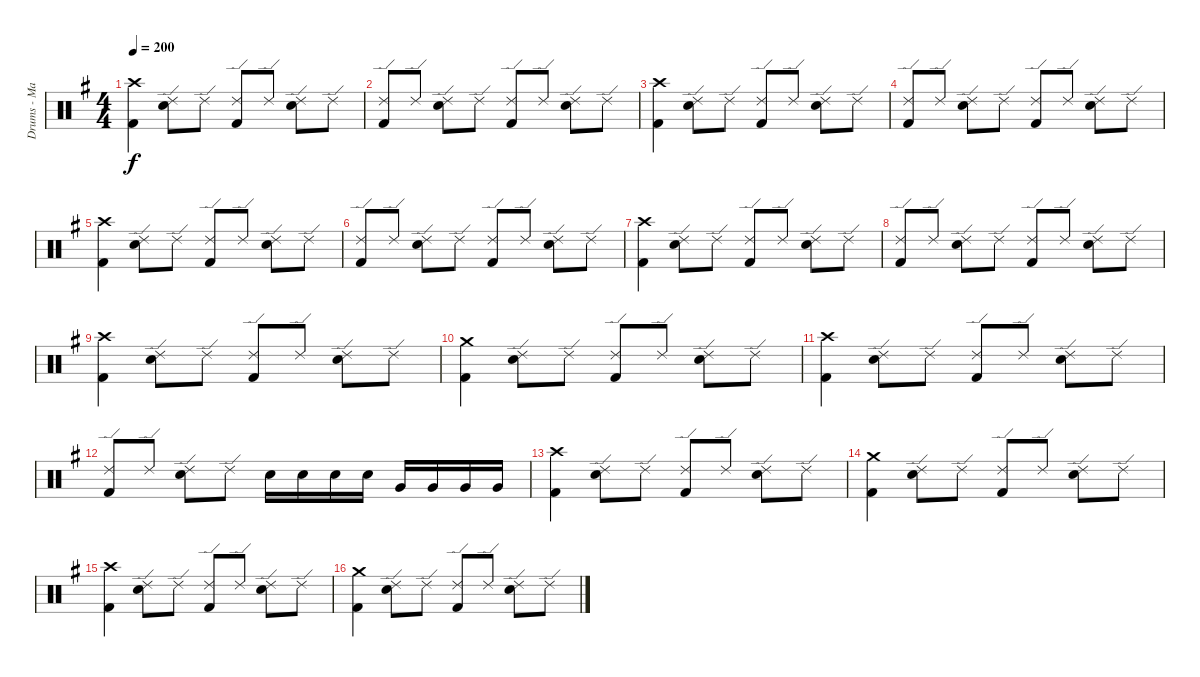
\track ("Drums - Marky Ramone" "Drums - Ma") {instrument percussion}
\staff {score}
\articulation defaults
\ts (4 4)
\tempo 200
\clef neutral
\ks g
("Crash high (hit)" "Kick (hit) 2").4{dy f} ("Ride (edge) 2" "Snare (hit) 2").8 "Ride (edge) 2".8 ("Ride (edge) 2" "Kick (hit) 2").8 "Ride (edge) 2".8 ("Ride (edge) 2" "Snare (hit) 2").8 "Ride (edge) 2".8 |
("Ride (edge) 2" "Kick (hit) 2").8 "Ride (edge) 2".8 ("Ride (edge) 2" "Snare (hit) 2").8 "Ride (edge) 2".8 ("Ride (edge) 2" "Kick (hit) 2").8 "Ride (edge) 2".8 ("Ride (edge) 2" "Snare (hit) 2").8 "Ride (edge) 2".8 |
("Crash high (hit)" "Kick (hit) 2").4 ("Ride (edge) 2" "Snare (hit) 2").8 "Ride (edge) 2".8 ("Ride (edge) 2" "Kick (hit) 2").8 "Ride (edge) 2".8 ("Ride (edge) 2" "Snare (hit) 2").8 "Ride (edge) 2".8 |
("Ride (edge) 2" "Kick (hit) 2").8 "Ride (edge) 2".8 ("Ride (edge) 2" "Snare (hit) 2").8 "Ride (edge) 2".8 ("Ride (edge) 2" "Kick (hit) 2").8 "Ride (edge) 2".8 ("Ride (edge) 2" "Snare (hit) 2").8 "Ride (edge) 2".8 |
("Crash high (hit)" "Kick (hit) 2").4 ("Ride (edge) 2" "Snare (hit) 2").8 "Ride (edge) 2".8 ("Ride (edge) 2" "Kick (hit) 2").8 "Ride (edge) 2".8 ("Ride (edge) 2" "Snare (hit) 2").8 "Ride (edge) 2".8 |
("Ride (edge) 2" "Kick (hit) 2").8 "Ride (edge) 2".8 ("Ride (edge) 2" "Snare (hit) 2").8 "Ride (edge) 2".8 ("Ride (edge) 2" "Kick (hit) 2").8 "Ride (edge) 2".8 ("Ride (edge) 2" "Snare (hit) 2").8 "Ride (edge) 2".8 |
("Crash high (hit)" "Kick (hit) 2").4 ("Ride (edge) 2" "Snare (hit) 2").8 "Ride (edge) 2".8 ("Ride (edge) 2" "Kick (hit) 2").8 "Ride (edge) 2".8 ("Ride (edge) 2" "Snare (hit) 2").8 "Ride (edge) 2".8 |
("Ride (edge) 2" "Kick (hit) 2").8 "Ride (edge) 2".8 ("Ride (edge) 2" "Snare (hit) 2").8 "Ride (edge) 2".8 ("Ride (edge) 2" "Kick (hit) 2").8 "Ride (edge) 2".8 ("Ride (edge) 2" "Snare (hit) 2").8 "Ride (edge) 2".8 |
("Crash high (hit)" "Kick (hit) 2").4 ("Ride (edge) 2" "Snare (hit) 2").8 "Ride (edge) 2".8 ("Ride (edge) 2" "Kick (hit) 2").8 "Ride (edge) 2".8 ("Ride (edge) 2" "Snare (hit) 2").8 "Ride (edge) 2".8 |
("Crash medium (hit)" "Kick (hit) 2").4 ("Ride (edge) 2" "Snare (hit) 2").8 "Ride (edge) 2".8 ("Ride (edge) 2" "Kick (hit) 2").8 "Ride (edge) 2".8 ("Ride (edge) 2" "Snare (hit) 2").8 "Ride (edge) 2".8 |
("Crash high (hit)" "Kick (hit) 2").4 ("Ride (edge) 2" "Snare (hit) 2").8 "Ride (edge) 2".8 ("Ride (edge) 2" "Kick (hit) 2").8 "Ride (edge) 2".8 ("Ride (edge) 2" "Snare (hit) 2").8 "Ride (edge) 2".8 |
("Ride (edge) 2" "Kick (hit) 2").8 "Ride (edge) 2".8 ("Ride (edge) 2" "Snare (hit) 2").8 "Ride (edge) 2".8 "Snare (hit) 2".16 "Snare (hit) 2".16 "Snare (hit) 2".16 "Snare (hit) 2".16 "Very Low Tom (hit)".16 "Very Low Tom (hit)".16 "Very Low Tom (hit)".16 "Very Low Tom (hit)".16 |
("Crash high (hit)" "Kick (hit) 2").4 ("Ride (edge) 2" "Snare (hit) 2").8 "Ride (edge) 2".8 ("Ride (edge) 2" "Kick (hit) 2").8 "Ride (edge) 2".8 ("Ride (edge) 2" "Snare (hit) 2").8 "Ride (edge) 2".8 |
("Crash medium (hit)" "Kick (hit) 2").4 ("Ride (edge) 2" "Snare (hit) 2").8 "Ride (edge) 2".8 ("Ride (edge) 2" "Kick (hit) 2").8 "Ride (edge) 2".8 ("Ride (edge) 2" "Snare (hit) 2").8 "Ride (edge) 2".8 |
("Crash high (hit)" "Kick (hit) 2").4 ("Ride (edge) 2" "Snare (hit) 2").8 "Ride (edge) 2".8 ("Ride (edge) 2" "Kick (hit) 2").8 "Ride (edge) 2".8 ("Ride (edge) 2" "Snare (hit) 2").8 "Ride (edge) 2".8 |
("Crash medium (hit)" "Kick (hit) 2").4 ("Ride (edge) 2" "Snare (hit) 2").8 "Ride (edge) 2".8 ("Ride (edge) 2" "Kick (hit) 2").8 "Ride (edge) 2".8 ("Ride (edge) 2" "Snare (hit) 2").8 "Ride (edge) 2".8
